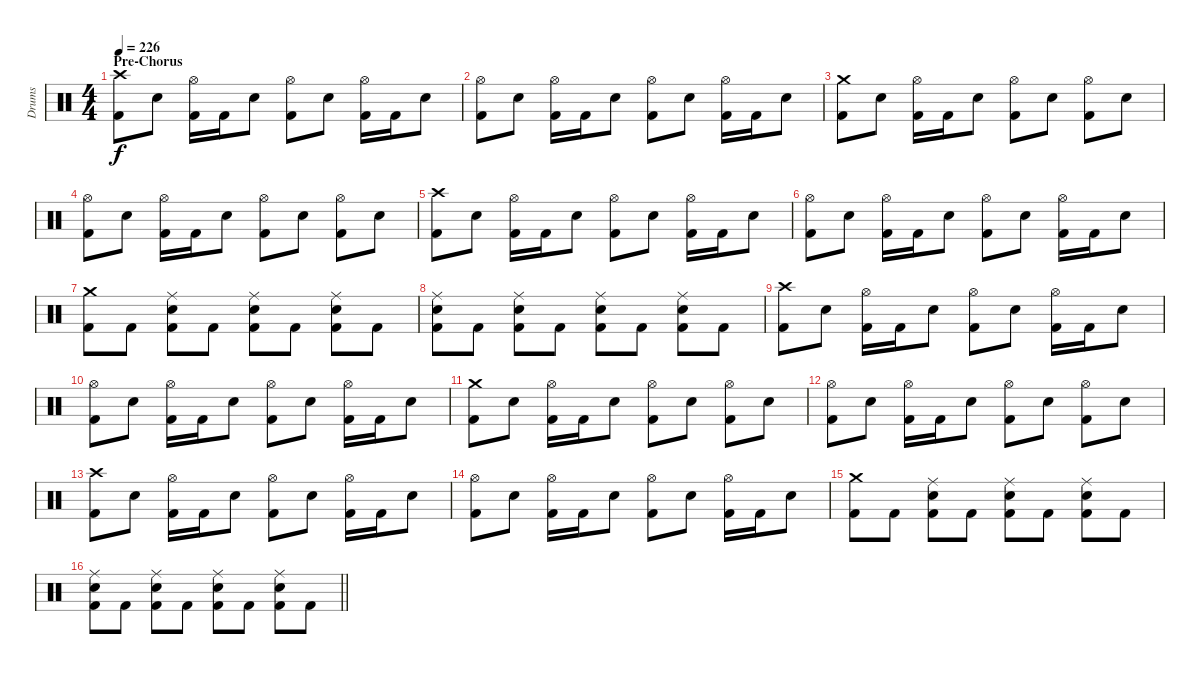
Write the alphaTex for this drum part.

\track ("Drums" "Drums") {instrument percussion}
\staff {score}
\articulation defaults
\ts (4 4)
\section ("" "Pre-Chorus")
\tempo 226
\clef neutral
\ks c
("Crash high (hit)" "Kick (hit) 2").8{dy f} "Snare (hit) 2".8 ("Hi-Hat (open)" "Kick (hit) 2").16 "Kick (hit) 2".16 "Snare (hit) 2".8 ("Hi-Hat (open)" "Kick (hit) 2").8 "Snare (hit) 2".8 ("Hi-Hat (open)" "Kick (hit) 2").16 "Kick (hit) 2".16 "Snare (hit) 2".8 |
("Hi-Hat (open)" "Kick (hit) 2").8 "Snare (hit) 2".8 ("Hi-Hat (open)" "Kick (hit) 2").16 "Kick (hit) 2".16 "Snare (hit) 2".8 ("Hi-Hat (open)" "Kick (hit) 2").8 "Snare (hit) 2".8 ("Hi-Hat (open)" "Kick (hit) 2").16 "Kick (hit) 2".16 "Snare (hit) 2".8 |
("Crash medium (hit)" "Kick (hit) 2").8 "Snare (hit) 2".8 ("Hi-Hat (open)" "Kick (hit) 2").16 "Kick (hit) 2".16 "Snare (hit) 2".8 ("Hi-Hat (open)" "Kick (hit) 2").8 "Snare (hit) 2".8 ("Hi-Hat (open)" "Kick (hit) 2").8 "Snare (hit) 2".8 |
("Hi-Hat (open)" "Kick (hit) 2").8 "Snare (hit) 2".8 ("Hi-Hat (open)" "Kick (hit) 2").16 "Kick (hit) 2".16 "Snare (hit) 2".8 ("Hi-Hat (open)" "Kick (hit) 2").8 "Snare (hit) 2".8 ("Hi-Hat (open)" "Kick (hit) 2").8 "Snare (hit) 2".8 |
("Crash high (hit)" "Kick (hit) 2").8 "Snare (hit) 2".8 ("Hi-Hat (open)" "Kick (hit) 2").16 "Kick (hit) 2".16 "Snare (hit) 2".8 ("Hi-Hat (open)" "Kick (hit) 2").8 "Snare (hit) 2".8 ("Hi-Hat (open)" "Kick (hit) 2").16 "Kick (hit) 2".16 "Snare (hit) 2".8 |
("Hi-Hat (open)" "Kick (hit) 2").8 "Snare (hit) 2".8 ("Hi-Hat (open)" "Kick (hit) 2").16 "Kick (hit) 2".16 "Snare (hit) 2".8 ("Hi-Hat (open)" "Kick (hit) 2").8 "Snare (hit) 2".8 ("Hi-Hat (open)" "Kick (hit) 2").16 "Kick (hit) 2".16 "Snare (hit) 2".8 |
("Crash medium (hit)" "Kick (hit) 2").8 "Kick (hit) 2".8 ("Ride (middle)" "Snare (hit) 2" "Kick (hit) 2").8 "Kick (hit) 2".8 ("Ride (middle)" "Snare (hit) 2" "Kick (hit) 2").8 "Kick (hit) 2".8 ("Ride (middle)" "Snare (hit) 2" "Kick (hit) 2").8 "Kick (hit) 2".8 |
("Ride (middle)" "Snare (hit) 2" "Kick (hit) 2").8 "Kick (hit) 2".8 ("Ride (middle)" "Snare (hit) 2" "Kick (hit) 2").8 "Kick (hit) 2".8 ("Ride (middle)" "Snare (hit) 2" "Kick (hit) 2").8 "Kick (hit) 2".8 ("Ride (middle)" "Snare (hit) 2" "Kick (hit) 2").8 "Kick (hit) 2".8 |
("Crash high (hit)" "Kick (hit) 2").8 "Snare (hit) 2".8 ("Hi-Hat (open)" "Kick (hit) 2").16 "Kick (hit) 2".16 "Snare (hit) 2".8 ("Hi-Hat (open)" "Kick (hit) 2").8 "Snare (hit) 2".8 ("Hi-Hat (open)" "Kick (hit) 2").16 "Kick (hit) 2".16 "Snare (hit) 2".8 |
("Hi-Hat (open)" "Kick (hit) 2").8 "Snare (hit) 2".8 ("Hi-Hat (open)" "Kick (hit) 2").16 "Kick (hit) 2".16 "Snare (hit) 2".8 ("Hi-Hat (open)" "Kick (hit) 2").8 "Snare (hit) 2".8 ("Hi-Hat (open)" "Kick (hit) 2").16 "Kick (hit) 2".16 "Snare (hit) 2".8 |
("Crash medium (hit)" "Kick (hit) 2").8 "Snare (hit) 2".8 ("Hi-Hat (open)" "Kick (hit) 2").16 "Kick (hit) 2".16 "Snare (hit) 2".8 ("Hi-Hat (open)" "Kick (hit) 2").8 "Snare (hit) 2".8 ("Hi-Hat (open)" "Kick (hit) 2").8 "Snare (hit) 2".8 |
("Hi-Hat (open)" "Kick (hit) 2").8 "Snare (hit) 2".8 ("Hi-Hat (open)" "Kick (hit) 2").16 "Kick (hit) 2".16 "Snare (hit) 2".8 ("Hi-Hat (open)" "Kick (hit) 2").8 "Snare (hit) 2".8 ("Hi-Hat (open)" "Kick (hit) 2").8 "Snare (hit) 2".8 |
("Crash high (hit)" "Kick (hit) 2").8 "Snare (hit) 2".8 ("Hi-Hat (open)" "Kick (hit) 2").16 "Kick (hit) 2".16 "Snare (hit) 2".8 ("Hi-Hat (open)" "Kick (hit) 2").8 "Snare (hit) 2".8 ("Hi-Hat (open)" "Kick (hit) 2").16 "Kick (hit) 2".16 "Snare (hit) 2".8 |
("Hi-Hat (open)" "Kick (hit) 2").8 "Snare (hit) 2".8 ("Hi-Hat (open)" "Kick (hit) 2").16 "Kick (hit) 2".16 "Snare (hit) 2".8 ("Hi-Hat (open)" "Kick (hit) 2").8 "Snare (hit) 2".8 ("Hi-Hat (open)" "Kick (hit) 2").16 "Kick (hit) 2".16 "Snare (hit) 2".8 |
("Crash medium (hit)" "Kick (hit) 2").8 "Kick (hit) 2".8 ("Ride (middle)" "Snare (hit) 2" "Kick (hit) 2").8 "Kick (hit) 2".8 ("Ride (middle)" "Snare (hit) 2" "Kick (hit) 2").8 "Kick (hit) 2".8 ("Ride (middle)" "Snare (hit) 2" "Kick (hit) 2").8 "Kick (hit) 2".8 |
\barLineRight lightlight
("Ride (middle)" "Snare (hit) 2" "Kick (hit) 2").8 "Kick (hit) 2".8 ("Ride (middle)" "Snare (hit) 2" "Kick (hit) 2").8 "Kick (hit) 2".8 ("Ride (middle)" "Snare (hit) 2" "Kick (hit) 2").8 "Kick (hit) 2".8 ("Ride (middle)" "Snare (hit) 2" "Kick (hit) 2").8 "Kick (hit) 2".8
